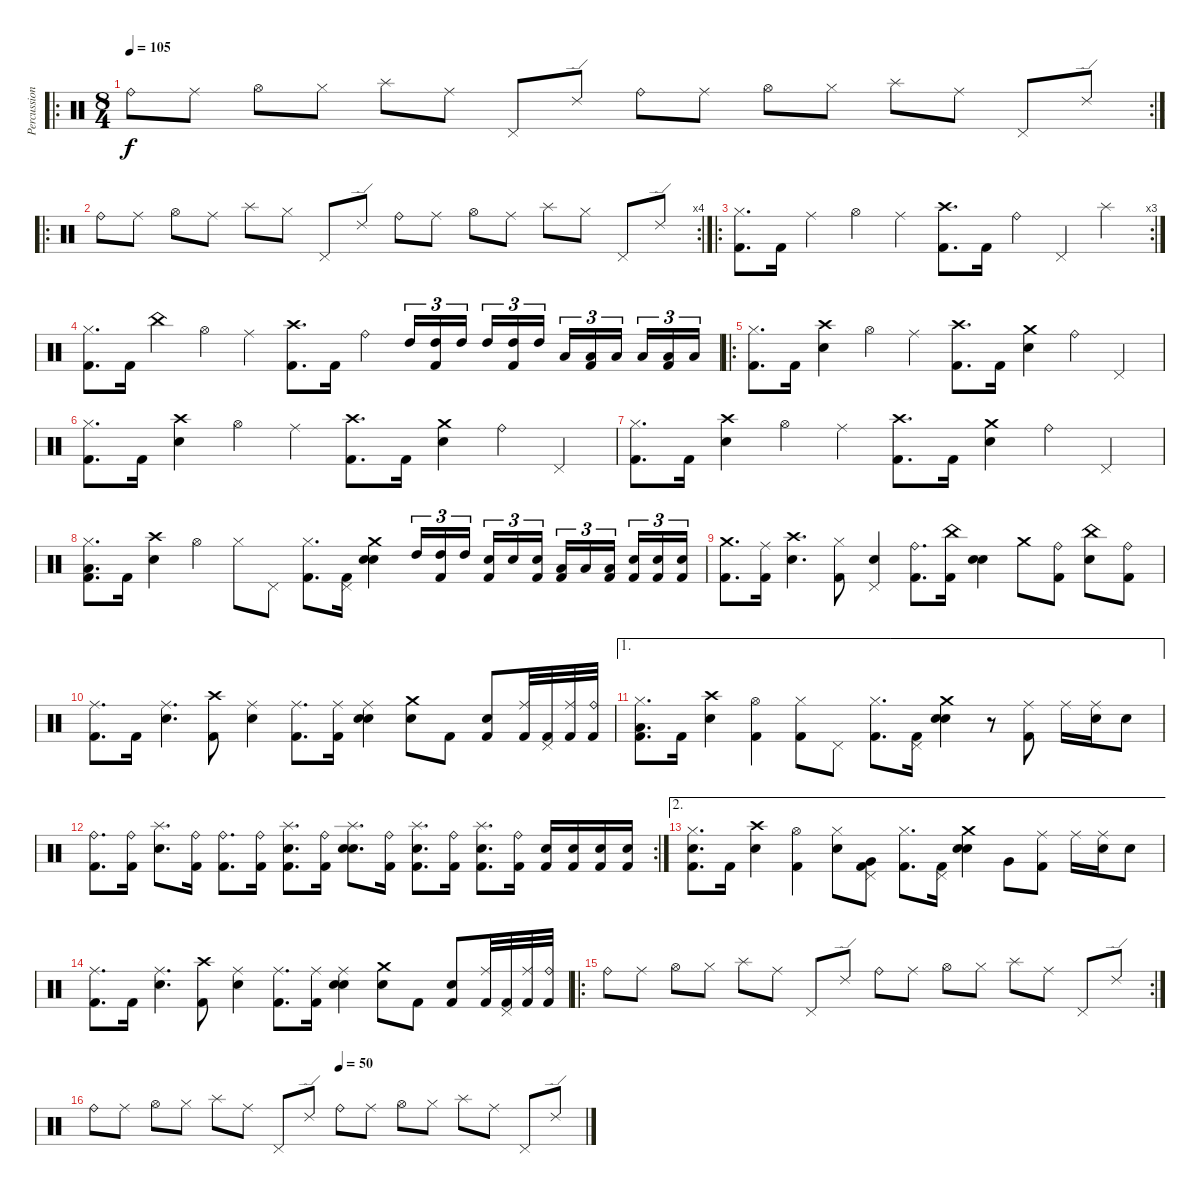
\track ("Percussions" "Percussion") {instrument percussion}
\staff {score}
\articulation defaults
\ro
\rc 2
\ts (8 4)
\tempo 105
\clef neutral
\ks c "Ride (bell)".8{dy f balance 0} "Ride (middle)".8{balance 16} "Hi-Hat (open)".8 "Hi-Hat (closed)".8 "Splash (hit)".8 "Ride (middle)".8 "Pedal Hi-Hat (hit)".8 "Ride (edge) 2".8 "Ride (bell)".8{balance 0} "Ride (middle)".8{balance 16} "Hi-Hat (open)".8 "Hi-Hat (closed)".8 "Splash (hit)".8 "Ride (middle)".8 "Pedal Hi-Hat (hit)".8 "Ride (edge) 2".8
|
\ro
\rc 4 "Ride (bell)".8{balance 0} "Ride (middle)".8{balance 16} "Hi-Hat (open)".8 "Ride (middle)".8 "Splash (hit)".8 "Hi-Hat (closed)".8 "Pedal Hi-Hat (hit)".8 "Ride (edge) 2".8 "Ride (bell)".8{balance 0} "Ride (middle)".8{balance 16} "Hi-Hat (open)".8 "Ride (middle)".8 "Splash (hit)".8 "Hi-Hat (closed)".8 "Pedal Hi-Hat (hit)".8 "Ride (edge) 2".8
|
\ro
\rc 3
("Hi-Hat (closed)" "Kick (hit) 2").8{d balance 8} "Kick (hit) 2".16 "Ride (middle)".4 "Hi-Hat (open)".4 "Ride (middle)".4 ("Crash high (hit)" "Kick (hit) 2").8{d} "Kick (hit) 2".16 "Ride (bell)".4 "Pedal Hi-Hat (hit)".4 "Splash (hit)".4 |
("Hi-Hat (closed)" "Kick (hit) 2").8{d volume 12} "Kick (hit) 2".16 "China (hit)".4 "Hi-Hat (open)".4 "Ride (middle)".4 ("Crash high (hit)" "Kick (hit) 2").8{d} "Kick (hit) 2".16 "Ride (bell)".4 "High Tom (hit)".16{tu (3 2)} ("High Tom (hit)" "Kick (hit) 2").16{tu (3 2)} "High Tom (hit)".16{tu (3 2) beam splitsecondary} "High Tom (hit)".16{tu (3 2)} ("High Tom (hit)" "Kick (hit) 2").16{tu (3 2)} "High Tom (hit)".16{tu (3 2)} "Low Floor Tom (hit)".16{tu (3 2)} ("Low Floor Tom (hit)" "Kick (hit) 2").16{tu (3 2)} "Low Floor Tom (hit)".16{tu (3 2) beam splitsecondary} "Low Floor Tom (hit)".16{tu (3 2)} ("Low Floor Tom (hit)" "Kick (hit) 2").16{tu (3 2)} "Low Floor Tom (hit)".16{tu (3 2)} |
\ro
("Hi-Hat (closed)" "Kick (hit) 2").8{d volume 12} "Kick (hit) 2".16 ("Crash high (hit)" "Electric Snare (hit)").4 "Hi-Hat (open)".4 "Ride (middle)".4 ("Crash high (hit)" "Kick (hit) 2").8{d} "Kick (hit) 2".16 ("Crash medium (hit)" "Electric Snare (hit)").4 "Ride (bell)".4 "Pedal Hi-Hat (hit)".4 |
("Hi-Hat (closed)" "Kick (hit) 2").8{d} "Kick (hit) 2".16 ("Crash high (hit)" "Electric Snare (hit)").4 "Hi-Hat (open)".4 "Ride (middle)".4 ("Crash high (hit)" "Kick (hit) 2").8{d} "Kick (hit) 2".16 ("Crash medium (hit)" "Electric Snare (hit)").4 "Ride (bell)".4 "Pedal Hi-Hat (hit)".4 |
("Hi-Hat (closed)" "Kick (hit) 2").8{d} "Kick (hit) 2".16 ("Crash high (hit)" "Electric Snare (hit)").4 "Hi-Hat (open)".4 "Ride (middle)".4 ("Crash high (hit)" "Kick (hit) 2").8{d} "Kick (hit) 2".16 ("Crash medium (hit)" "Electric Snare (hit)").4 "Ride (bell)".4 "Pedal Hi-Hat (hit)".4 |
("Hi-Hat (closed)" "Low Tom (hit)" "Kick (hit) 2").8{d} "Kick (hit) 2".16 ("Crash high (hit)" "Electric Snare (hit)").4 "Hi-Hat (open)".4 "Hi-Hat (closed)".8 "Pedal Hi-Hat (hit)".8 ("Hi-Hat (closed)" "Kick (hit) 2").8{d} ("Pedal Hi-Hat (hit)" "Kick (hit) 2").16 ("Crash medium (hit)" "Electric Snare (hit)" "Electric Snare (hit)").4 "High Tom (hit)".16{tu (3 2)} ("High Tom (hit)" "Kick (hit) 2").16{tu (3 2)} "High Tom (hit)".16{tu (3 2) beam splitsecondary} ("Electric Snare (hit)" "Kick (hit) 2").16{tu (3 2)} "Electric Snare (hit)".16{tu (3 2)} ("Electric Snare (hit)" "Kick (hit) 2").16{tu (3 2)} ("Low Floor Tom (hit)" "Kick (hit) 2").16{tu (3 2)} "Low Floor Tom (hit)".16{tu (3 2)} ("Low Floor Tom (hit)" "Kick (hit) 2").16{tu (3 2) beam splitsecondary} ("Electric Snare (hit)" "Kick (hit) 2").16{tu (3 2)} ("Electric Snare (hit)" "Kick (hit) 2").16{tu (3 2)} ("Electric Snare (hit)" "Kick (hit) 2").16{tu (3 2)} |
("Crash medium (hit)" "Kick (hit) 2").8{d} ("Ride (middle)" "Kick (hit) 2").16 ("Crash high (hit)" "Electric Snare (hit)").4{d} ("Hi-Hat (closed)" "Kick (hit) 2").8 ("Pedal Hi-Hat (hit)" "Electric Snare (hit)").4 ("Ride (bell)" "Kick (hit) 2").8{d} ("China (hit)" "Kick (hit) 2").16 ("Electric Snare (hit)" "Electric Snare (hit)").4 "Crash medium (hit)".8 ("Ride (bell)" "Kick (hit) 2").8 ("China (hit)" "Electric Snare (hit)").8 ("Ride (bell)" "Kick (hit) 2").8 |
("Ride (middle)" "Kick (hit) 2").8{d} "Kick (hit) 2".16 ("Ride (middle)" "Electric Snare (hit)").4{d} ("Crash high (hit)" "Kick (hit) 2").8 ("Ride (middle)" "Electric Snare (hit)").4 ("Ride (middle)" "Kick (hit) 2").8{d} ("Ride (middle)" "Kick (hit) 2").16 ("Ride (middle)" "Electric Snare (hit)" "Electric Snare (hit)").4 ("Crash medium (hit)" "Electric Snare (hit)").8 "Kick (hit) 2".8 ("Electric Snare (hit)" "Kick (hit) 2").8 ("Ride (middle)" "Kick (hit) 2").32 ("Pedal Hi-Hat (hit)" "Kick (hit) 2").32 ("Ride (middle)" "Kick (hit) 2").32 ("Ride (bell)" "Kick (hit) 2").32 |
\ae 1
("Hi-Hat (closed)" "Low Tom (hit)" "Kick (hit) 2").8{d} "Kick (hit) 2".16 ("Crash high (hit)" "Electric Snare (hit)").4 ("Hi-Hat (open)" "Kick (hit) 2").4 ("Hi-Hat (closed)" "Kick (hit) 2").8 "Pedal Hi-Hat (hit)".8 ("Hi-Hat (closed)" "Kick (hit) 2").8{d} ("Pedal Hi-Hat (hit)" "Kick (hit) 2").16 ("Crash medium (hit)" "Electric Snare (hit)" "Electric Snare (hit)").4 r.8 ("Ride (middle)" "Kick (hit) 2").8 "Ride (middle)".16 ("Electric Snare (hit)" "Ride (middle)").16 "Electric Snare (hit)".8 |
\rc 2
("Ride (bell)" "Kick (hit) 2").8{d} ("Ride (bell)" "Kick (hit) 2").16 ("Splash (hit)" "Electric Snare (hit)").8{d} ("Ride (bell)" "Kick (hit) 2").16 ("Ride (bell)" "Kick (hit) 2").8{d} ("Ride (bell)" "Kick (hit) 2").16 ("Splash (hit)" "Electric Snare (hit)" "Kick (hit) 2").8{d} ("Ride (bell)" "Kick (hit) 2").16 ("Splash (hit)" "Electric Snare (hit)" "Electric Snare (hit)").8{d} ("Ride (bell)" "Kick (hit) 2").16 ("Splash (hit)" "Electric Snare (hit)" "Kick (hit) 2").8{d} ("Ride (bell)" "Kick (hit) 2").16 ("Splash (hit)" "Electric Snare (hit)" "Kick (hit) 2").8{d} ("Ride (bell)" "Kick (hit) 2").16 ("Electric Snare (hit)" "Kick (hit) 2").16{volume 16} ("Electric Snare (hit)" "Kick (hit) 2").16 ("Electric Snare (hit)" "Kick (hit) 2").16 ("Electric Snare (hit)" "Kick (hit) 2").16 |
\ae 2
("Hi-Hat (closed)" "Electric Snare (hit)" "Kick (hit) 2").8{d} "Kick (hit) 2".16 ("Crash high (hit)" "Electric Snare (hit)").4 ("Hi-Hat (open)" "Kick (hit) 2").4 ("Hi-Hat (closed)" "Electric Snare (hit)").8 ("Pedal Hi-Hat (hit)" "Very Low Tom (hit)" "Kick (hit) 2").8 ("Hi-Hat (closed)" "Kick (hit) 2").8{d} ("Pedal Hi-Hat (hit)" "Kick (hit) 2").16 ("Crash medium (hit)" "Electric Snare (hit)" "Electric Snare (hit)").4 "Very Low Tom (hit)".8 ("Ride (middle)" "Kick (hit) 2").8 "Ride (middle)".16 ("Electric Snare (hit)" "Ride (middle)").16 "Electric Snare (hit)".8 |
("Ride (middle)" "Kick (hit) 2").8{d} "Kick (hit) 2".16 ("Ride (middle)" "Electric Snare (hit)").4{d} ("Crash high (hit)" "Kick (hit) 2").8 ("Ride (middle)" "Electric Snare (hit)").4 ("Ride (middle)" "Kick (hit) 2").8{d} ("Ride (middle)" "Kick (hit) 2").16 ("Ride (middle)" "Electric Snare (hit)" "Electric Snare (hit)").4 ("Crash medium (hit)" "Electric Snare (hit)").8 "Kick (hit) 2".8 ("Electric Snare (hit)" "Kick (hit) 2").8 ("Ride (middle)" "Kick (hit) 2").32 ("Pedal Hi-Hat (hit)" "Kick (hit) 2").32 ("Ride (middle)" "Kick (hit) 2").32 ("Ride (bell)" "Kick (hit) 2").32 |
\ro
\rc 2 "Ride (bell)".8 "Ride (middle)".8 "Hi-Hat (open)".8 "Hi-Hat (closed)".8 "Splash (hit)".8 "Ride (middle)".8 "Pedal Hi-Hat (hit)".8 "Ride (edge) 2".8 "Ride (bell)".8 "Ride (middle)".8 "Hi-Hat (open)".8 "Hi-Hat (closed)".8 "Splash (hit)".8 "Ride (middle)".8 "Pedal Hi-Hat (hit)".8 "Ride (edge) 2".8
|
\tempo (50 0.5)
"Ride (bell)".8 "Ride (middle)".8 "Hi-Hat (open)".8 "Hi-Hat (closed)".8 "Splash (hit)".8 "Ride (middle)".8 "Pedal Hi-Hat (hit)".8 "Ride (edge) 2".8 "Ride (bell)".8 "Ride (middle)".8 "Hi-Hat (open)".8 "Hi-Hat (closed)".8 "Splash (hit)".8 "Ride (middle)".8 "Pedal Hi-Hat (hit)".8 "Ride (edge) 2".8
